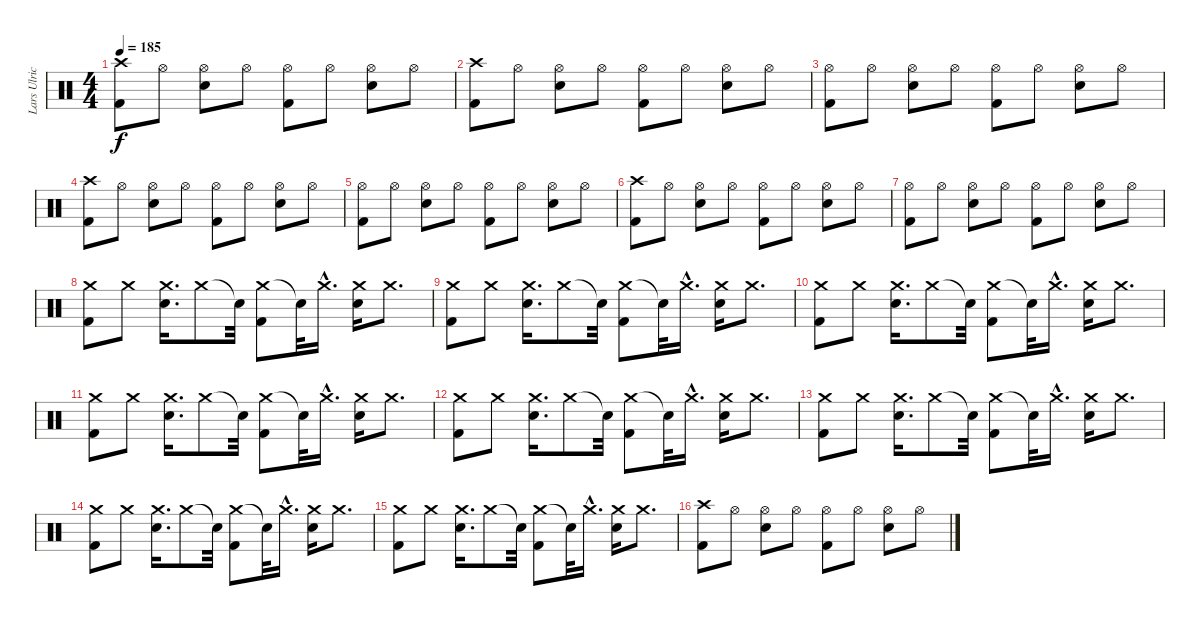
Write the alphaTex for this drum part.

\track ("Lars Ulrich" "Lars Ulric") {instrument percussion}
\staff {score}
\articulation defaults
\ts (4 4)
\tempo 185
\clef neutral
\ks c
("Crash high (hit)" "Kick (hit) 2").8{dy f} "Hi-Hat (open)".8 ("Snare (hit) 2" "Hi-Hat (open)").8 "Hi-Hat (open)".8 ("Kick (hit) 2" "Hi-Hat (open)").8 "Hi-Hat (open)".8 ("Snare (hit) 2" "Hi-Hat (open)").8 "Hi-Hat (open)".8 |
("Crash high (hit)" "Kick (hit) 2").8 "Hi-Hat (open)".8 ("Snare (hit) 2" "Hi-Hat (open)").8 "Hi-Hat (open)".8 ("Kick (hit) 2" "Hi-Hat (open)").8 "Hi-Hat (open)".8 ("Snare (hit) 2" "Hi-Hat (open)").8 "Hi-Hat (open)".8 |
("Hi-Hat (open)" "Kick (hit) 2").8 "Hi-Hat (open)".8 ("Snare (hit) 2" "Hi-Hat (open)").8 "Hi-Hat (open)".8 ("Kick (hit) 2" "Hi-Hat (open)").8 "Hi-Hat (open)".8 ("Snare (hit) 2" "Hi-Hat (open)").8 "Hi-Hat (open)".8 |
("Crash high (hit)" "Kick (hit) 2").8 "Hi-Hat (open)".8 ("Snare (hit) 2" "Hi-Hat (open)").8 "Hi-Hat (open)".8 ("Kick (hit) 2" "Hi-Hat (open)").8 "Hi-Hat (open)".8 ("Snare (hit) 2" "Hi-Hat (open)").8 "Hi-Hat (open)".8 |
("Hi-Hat (open)" "Kick (hit) 2").8 "Hi-Hat (open)".8 ("Snare (hit) 2" "Hi-Hat (open)").8 "Hi-Hat (open)".8 ("Kick (hit) 2" "Hi-Hat (open)").8 "Hi-Hat (open)".8 ("Snare (hit) 2" "Hi-Hat (open)").8 "Hi-Hat (open)".8 |
("Crash high (hit)" "Kick (hit) 2").8 "Hi-Hat (open)".8 ("Snare (hit) 2" "Hi-Hat (open)").8 "Hi-Hat (open)".8 ("Kick (hit) 2" "Hi-Hat (open)").8 "Hi-Hat (open)".8 ("Snare (hit) 2" "Hi-Hat (open)").8 "Hi-Hat (open)".8 |
("Hi-Hat (open)" "Kick (hit) 2").8 "Hi-Hat (open)".8 ("Snare (hit) 2" "Hi-Hat (open)").8 "Hi-Hat (open)".8 ("Kick (hit) 2" "Hi-Hat (open)").8 "Hi-Hat (open)".8 ("Snare (hit) 2" "Hi-Hat (open)").8 "Hi-Hat (open)".8 |
("Crash medium (hit)" "Kick (hit) 2").8 "Crash medium (hit)".8 ("Crash medium (hit)" "Snare (hit) 2").16{d} "Crash medium (hit)".8 "Snare (hit)"{t}.32 ("Crash medium (hit)" "Kick (hit) 2").8 "Snare (hit)"{t}.32 "Crash medium (hit)"{hac}.16{d} ("Crash medium (hit)" "Snare (hit) 2").16 "Crash medium (hit)".8{d} |
("Crash medium (hit)" "Kick (hit) 2").8 "Crash medium (hit)".8 ("Crash medium (hit)" "Snare (hit) 2").16{d} "Crash medium (hit)".8 "Snare (hit)"{t}.32 ("Crash medium (hit)" "Kick (hit) 2").8 "Snare (hit)"{t}.32 "Crash medium (hit)"{hac}.16{d} ("Crash medium (hit)" "Snare (hit) 2").16 "Crash medium (hit)".8{d} |
("Crash medium (hit)" "Kick (hit) 2").8 "Crash medium (hit)".8 ("Crash medium (hit)" "Snare (hit) 2").16{d} "Crash medium (hit)".8 "Snare (hit)"{t}.32 ("Crash medium (hit)" "Kick (hit) 2").8 "Snare (hit)"{t}.32 "Crash medium (hit)"{hac}.16{d} ("Crash medium (hit)" "Snare (hit) 2").16 "Crash medium (hit)".8{d} |
("Crash medium (hit)" "Kick (hit) 2").8 "Crash medium (hit)".8 ("Crash medium (hit)" "Snare (hit) 2").16{d} "Crash medium (hit)".8 "Snare (hit)"{t}.32 ("Crash medium (hit)" "Kick (hit) 2").8 "Snare (hit)"{t}.32 "Crash medium (hit)"{hac}.16{d} ("Crash medium (hit)" "Snare (hit) 2").16 "Crash medium (hit)".8{d} |
("Crash medium (hit)" "Kick (hit) 2").8 "Crash medium (hit)".8 ("Crash medium (hit)" "Snare (hit) 2").16{d} "Crash medium (hit)".8 "Snare (hit)"{t}.32 ("Crash medium (hit)" "Kick (hit) 2").8 "Snare (hit)"{t}.32 "Crash medium (hit)"{hac}.16{d} ("Crash medium (hit)" "Snare (hit) 2").16 "Crash medium (hit)".8{d} |
("Crash medium (hit)" "Kick (hit) 2").8 "Crash medium (hit)".8 ("Crash medium (hit)" "Snare (hit) 2").16{d} "Crash medium (hit)".8 "Snare (hit)"{t}.32 ("Crash medium (hit)" "Kick (hit) 2").8 "Snare (hit)"{t}.32 "Crash medium (hit)"{hac}.16{d} ("Crash medium (hit)" "Snare (hit) 2").16 "Crash medium (hit)".8{d} |
("Crash medium (hit)" "Kick (hit) 2").8 "Crash medium (hit)".8 ("Crash medium (hit)" "Snare (hit) 2").16{d} "Crash medium (hit)".8 "Snare (hit)"{t}.32 ("Crash medium (hit)" "Kick (hit) 2").8 "Snare (hit)"{t}.32 "Crash medium (hit)"{hac}.16{d} ("Crash medium (hit)" "Snare (hit) 2").16 "Crash medium (hit)".8{d} |
("Crash medium (hit)" "Kick (hit) 2").8 "Crash medium (hit)".8 ("Crash medium (hit)" "Snare (hit) 2").16{d} "Crash medium (hit)".8 "Snare (hit)"{t}.32 ("Crash medium (hit)" "Kick (hit) 2").8 "Snare (hit)"{t}.32 "Crash medium (hit)"{hac}.16{d} ("Crash medium (hit)" "Snare (hit) 2").16 "Crash medium (hit)".8{d} |
("Kick (hit) 2" "Crash high (hit)").8 "Hi-Hat (open)".8 ("Snare (hit) 2" "Hi-Hat (open)").8 "Hi-Hat (open)".8 ("Kick (hit) 2" "Hi-Hat (open)").8 "Hi-Hat (open)".8 ("Snare (hit) 2" "Hi-Hat (open)").8 "Hi-Hat (open)".8
